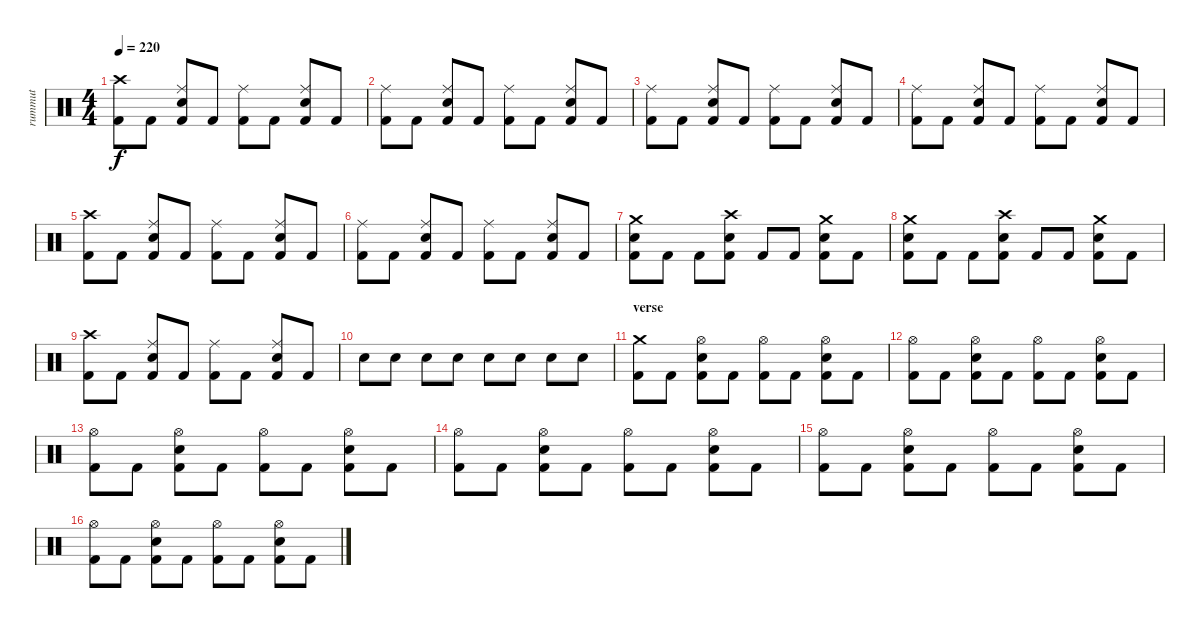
\track ("rummut" "rummut") {instrument percussion}
\staff {score}
\articulation defaults
\ts (4 4)
\tempo 220
\clef neutral
\ks c
("Crash high (hit)" "Kick (hit) 2").8{dy f} "Kick (hit) 2".8 ("Ride (middle)" "Electric Snare (hit)" "Kick (hit) 2").8 "Kick (hit) 2".8 ("Ride (middle)" "Kick (hit) 2").8 "Kick (hit) 2".8 ("Ride (middle)" "Electric Snare (hit)" "Kick (hit) 2").8 "Kick (hit) 2".8 |
("Ride (middle)" "Kick (hit) 2").8 "Kick (hit) 2".8 ("Ride (middle)" "Electric Snare (hit)" "Kick (hit) 2").8 "Kick (hit) 2".8 ("Ride (middle)" "Kick (hit) 2").8 "Kick (hit) 2".8 ("Ride (middle)" "Electric Snare (hit)" "Kick (hit) 2").8 "Kick (hit) 2".8 |
("Ride (middle)" "Kick (hit) 2").8 "Kick (hit) 2".8 ("Ride (middle)" "Electric Snare (hit)" "Kick (hit) 2").8 "Kick (hit) 2".8 ("Ride (middle)" "Kick (hit) 2").8 "Kick (hit) 2".8 ("Ride (middle)" "Electric Snare (hit)" "Kick (hit) 2").8 "Kick (hit) 2".8 |
("Ride (middle)" "Kick (hit) 2").8 "Kick (hit) 2".8 ("Ride (middle)" "Electric Snare (hit)" "Kick (hit) 2").8 "Kick (hit) 2".8 ("Ride (middle)" "Kick (hit) 2").8 "Kick (hit) 2".8 ("Ride (middle)" "Electric Snare (hit)" "Kick (hit) 2").8 "Kick (hit) 2".8 |
("Crash high (hit)" "Kick (hit) 2").8 "Kick (hit) 2".8 ("Ride (middle)" "Electric Snare (hit)" "Kick (hit) 2").8 "Kick (hit) 2".8 ("Ride (middle)" "Kick (hit) 2").8 "Kick (hit) 2".8 ("Ride (middle)" "Electric Snare (hit)" "Kick (hit) 2").8 "Kick (hit) 2".8 |
("Ride (middle)" "Kick (hit) 2").8 "Kick (hit) 2".8 ("Ride (middle)" "Electric Snare (hit)" "Kick (hit) 2").8 "Kick (hit) 2".8 ("Ride (middle)" "Kick (hit) 2").8 "Kick (hit) 2".8 ("Ride (middle)" "Electric Snare (hit)" "Kick (hit) 2").8 "Kick (hit) 2".8 |
("Crash medium (hit)" "Electric Snare (hit)" "Kick (hit) 2").8 "Kick (hit) 2".8 "Kick (hit) 2".8 ("Crash high (hit)" "Electric Snare (hit)" "Kick (hit) 2").8 "Kick (hit) 2".8 "Kick (hit) 2".8 ("Crash medium (hit)" "Electric Snare (hit)" "Kick (hit) 2").8 "Kick (hit) 2".8 |
("Crash medium (hit)" "Electric Snare (hit)" "Kick (hit) 2").8 "Kick (hit) 2".8 "Kick (hit) 2".8 ("Crash high (hit)" "Electric Snare (hit)" "Kick (hit) 2").8 "Kick (hit) 2".8 "Kick (hit) 2".8 ("Crash medium (hit)" "Electric Snare (hit)" "Kick (hit) 2").8 "Kick (hit) 2".8 |
("Crash high (hit)" "Kick (hit) 2").8 "Kick (hit) 2".8 ("Ride (middle)" "Electric Snare (hit)" "Kick (hit) 2").8 "Kick (hit) 2".8 ("Ride (middle)" "Kick (hit) 2").8 "Kick (hit) 2".8 ("Ride (middle)" "Electric Snare (hit)" "Kick (hit) 2").8 "Kick (hit) 2".8 |
"Electric Snare (hit)".8 "Electric Snare (hit)".8 "Electric Snare (hit)".8 "Electric Snare (hit)".8 "Electric Snare (hit)".8 "Electric Snare (hit)".8 "Electric Snare (hit)".8 "Electric Snare (hit)".8 |
\section ("" "verse")
("Crash medium (hit)" "Kick (hit) 2").8 "Kick (hit) 2".8 ("Hi-Hat (open)" "Electric Snare (hit)" "Kick (hit) 2").8 "Kick (hit) 2".8 ("Hi-Hat (open)" "Kick (hit) 2").8 "Kick (hit) 2".8 ("Hi-Hat (open)" "Electric Snare (hit)" "Kick (hit) 2").8 "Kick (hit) 2".8 |
("Hi-Hat (open)" "Kick (hit) 2").8 "Kick (hit) 2".8 ("Hi-Hat (open)" "Electric Snare (hit)" "Kick (hit) 2").8 "Kick (hit) 2".8 ("Hi-Hat (open)" "Kick (hit) 2").8 "Kick (hit) 2".8 ("Hi-Hat (open)" "Electric Snare (hit)" "Kick (hit) 2").8 "Kick (hit) 2".8 |
("Hi-Hat (open)" "Kick (hit) 2").8 "Kick (hit) 2".8 ("Hi-Hat (open)" "Electric Snare (hit)" "Kick (hit) 2").8 "Kick (hit) 2".8 ("Hi-Hat (open)" "Kick (hit) 2").8 "Kick (hit) 2".8 ("Hi-Hat (open)" "Electric Snare (hit)" "Kick (hit) 2").8 "Kick (hit) 2".8 |
("Hi-Hat (open)" "Kick (hit) 2").8 "Kick (hit) 2".8 ("Hi-Hat (open)" "Electric Snare (hit)" "Kick (hit) 2").8 "Kick (hit) 2".8 ("Hi-Hat (open)" "Kick (hit) 2").8 "Kick (hit) 2".8 ("Hi-Hat (open)" "Electric Snare (hit)" "Kick (hit) 2").8 "Kick (hit) 2".8 |
("Hi-Hat (open)" "Kick (hit) 2").8 "Kick (hit) 2".8 ("Hi-Hat (open)" "Electric Snare (hit)" "Kick (hit) 2").8 "Kick (hit) 2".8 ("Hi-Hat (open)" "Kick (hit) 2").8 "Kick (hit) 2".8 ("Hi-Hat (open)" "Electric Snare (hit)" "Kick (hit) 2").8 "Kick (hit) 2".8 |
("Hi-Hat (open)" "Kick (hit) 2").8 "Kick (hit) 2".8 ("Hi-Hat (open)" "Electric Snare (hit)" "Kick (hit) 2").8 "Kick (hit) 2".8 ("Hi-Hat (open)" "Kick (hit) 2").8 "Kick (hit) 2".8 ("Hi-Hat (open)" "Electric Snare (hit)" "Kick (hit) 2").8 "Kick (hit) 2".8
